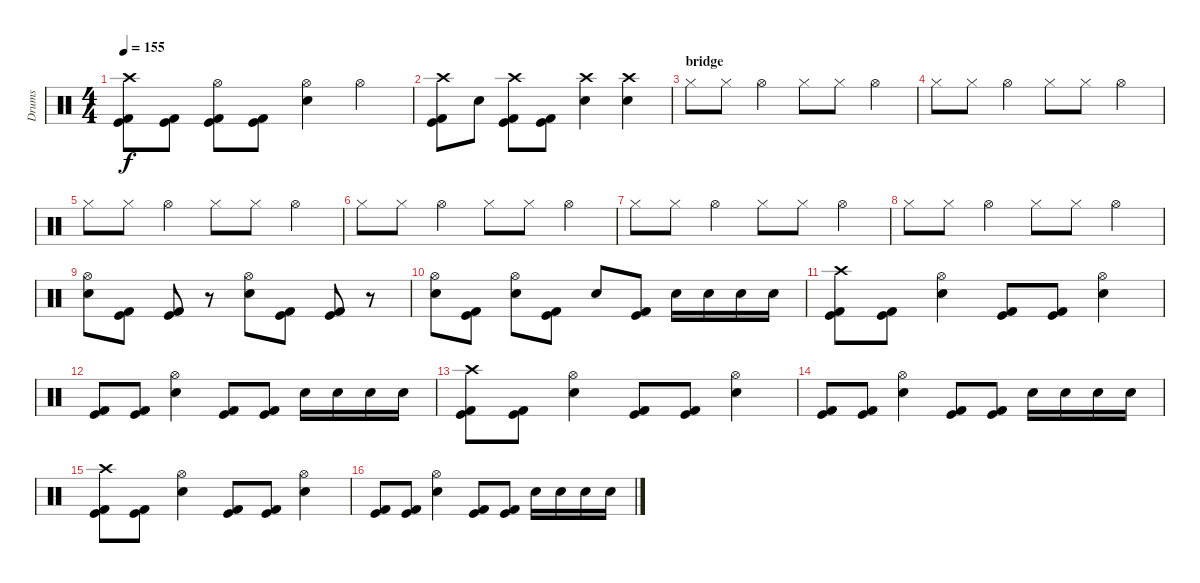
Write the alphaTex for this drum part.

\track ("Drums" "Drums") {instrument percussion}
\staff {score}
\articulation defaults
\ts (4 4)
\tempo 155
\clef neutral
\ks c
("Crash high (hit)" "Kick (hit)" "Kick (hit) 2").8{dy f} ("Kick (hit)" "Kick (hit) 2").8 ("Hi-Hat (open)" "Kick (hit)" "Kick (hit) 2").8 ("Kick (hit)" "Kick (hit) 2").8 ("Hi-Hat (open)" "Electric Snare (hit)").4 "Hi-Hat (open)".4 |
("Crash high (hit)" "Kick (hit)" "Kick (hit) 2").8 "Electric Snare (hit)".8 ("Crash high (hit)" "Kick (hit)" "Kick (hit) 2").8 ("Kick (hit)" "Kick (hit) 2").8 ("Crash high (hit)" "Electric Snare (hit)").4 ("Crash high (hit)" "Electric Snare (hit)").4 |
\section ("" "bridge")
"Hi-Hat (closed)".8 "Hi-Hat (closed)".8 "Hi-Hat (open)".4 "Hi-Hat (closed)".8 "Hi-Hat (closed)".8 "Hi-Hat (open)".4 |
"Hi-Hat (closed)".8 "Hi-Hat (closed)".8 "Hi-Hat (open)".4 "Hi-Hat (closed)".8 "Hi-Hat (closed)".8 "Hi-Hat (open)".4 |
"Hi-Hat (closed)".8 "Hi-Hat (closed)".8 "Hi-Hat (open)".4 "Hi-Hat (closed)".8 "Hi-Hat (closed)".8 "Hi-Hat (open)".4 |
"Hi-Hat (closed)".8 "Hi-Hat (closed)".8 "Hi-Hat (open)".4 "Hi-Hat (closed)".8 "Hi-Hat (closed)".8 "Hi-Hat (open)".4 |
"Hi-Hat (closed)".8 "Hi-Hat (closed)".8 "Hi-Hat (open)".4 "Hi-Hat (closed)".8 "Hi-Hat (closed)".8 "Hi-Hat (open)".4 |
"Hi-Hat (closed)".8 "Hi-Hat (closed)".8 "Hi-Hat (open)".4 "Hi-Hat (closed)".8 "Hi-Hat (closed)".8 "Hi-Hat (open)".4 |
("Hi-Hat (open)" "Electric Snare (hit)").8 ("Kick (hit)" "Kick (hit) 2").8 ("Kick (hit)" "Kick (hit) 2").8 r.8 ("Hi-Hat (open)" "Electric Snare (hit)").8 ("Kick (hit)" "Kick (hit) 2").8 ("Kick (hit)" "Kick (hit) 2").8 r.8 |
("Hi-Hat (open)" "Electric Snare (hit)").8 ("Kick (hit)" "Kick (hit) 2").8 ("Hi-Hat (open)" "Electric Snare (hit)").8 ("Kick (hit)" "Kick (hit) 2").8 "Electric Snare (hit)".8 ("Kick (hit)" "Kick (hit) 2").8 "Electric Snare (hit)".16 "Electric Snare (hit)".16 "Electric Snare (hit)".16 "Electric Snare (hit)".16 |
("Crash high (hit)" "Kick (hit)" "Kick (hit) 2").8 ("Kick (hit)" "Kick (hit) 2").8 ("Hi-Hat (open)" "Electric Snare (hit)").4 ("Kick (hit)" "Kick (hit) 2").8 ("Kick (hit)" "Kick (hit) 2").8 ("Hi-Hat (open)" "Electric Snare (hit)").4 |
("Kick (hit)" "Kick (hit) 2").8 ("Kick (hit)" "Kick (hit) 2").8 ("Hi-Hat (open)" "Electric Snare (hit)").4 ("Kick (hit)" "Kick (hit) 2").8 ("Kick (hit)" "Kick (hit) 2").8 "Electric Snare (hit)".16 "Electric Snare (hit)".16 "Electric Snare (hit)".16 "Electric Snare (hit)".16 |
("Crash high (hit)" "Kick (hit)" "Kick (hit) 2").8 ("Kick (hit)" "Kick (hit) 2").8 ("Hi-Hat (open)" "Electric Snare (hit)").4 ("Kick (hit)" "Kick (hit) 2").8 ("Kick (hit)" "Kick (hit) 2").8 ("Hi-Hat (open)" "Electric Snare (hit)").4 |
("Kick (hit)" "Kick (hit) 2").8 ("Kick (hit)" "Kick (hit) 2").8 ("Hi-Hat (open)" "Electric Snare (hit)").4 ("Kick (hit)" "Kick (hit) 2").8 ("Kick (hit)" "Kick (hit) 2").8 "Electric Snare (hit)".16 "Electric Snare (hit)".16 "Electric Snare (hit)".16 "Electric Snare (hit)".16 |
("Crash high (hit)" "Kick (hit)" "Kick (hit) 2").8 ("Kick (hit)" "Kick (hit) 2").8 ("Hi-Hat (open)" "Electric Snare (hit)").4 ("Kick (hit)" "Kick (hit) 2").8 ("Kick (hit)" "Kick (hit) 2").8 ("Hi-Hat (open)" "Electric Snare (hit)").4 |
("Kick (hit)" "Kick (hit) 2").8 ("Kick (hit)" "Kick (hit) 2").8 ("Hi-Hat (open)" "Electric Snare (hit)").4 ("Kick (hit)" "Kick (hit) 2").8 ("Kick (hit)" "Kick (hit) 2").8 "Electric Snare (hit)".16 "Electric Snare (hit)".16 "Electric Snare (hit)".16 "Electric Snare (hit)".16
